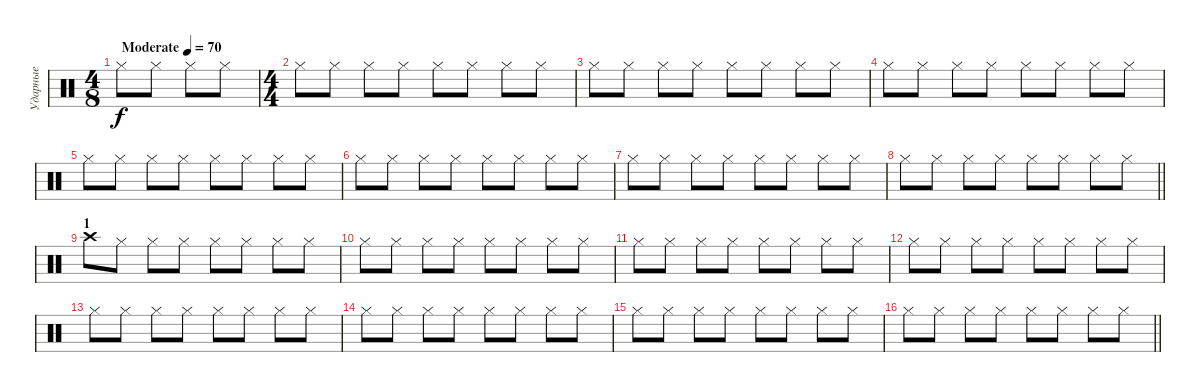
\track ("Ударные" "Ударные") {instrument percussion}
\staff {score}
\articulation defaults
\ts (4 8)
\tempo (70 "Moderate")
\clef neutral
\ks c "Hi-Hat (closed)".8{dy f} "Hi-Hat (closed)".8 "Hi-Hat (closed)".8 "Hi-Hat (closed)".8
|
\ts (4 4)
"Hi-Hat (closed)".8 "Hi-Hat (closed)".8 "Hi-Hat (closed)".8 "Hi-Hat (closed)".8 "Hi-Hat (closed)".8 "Hi-Hat (closed)".8 "Hi-Hat (closed)".8 "Hi-Hat (closed)".8 |
"Hi-Hat (closed)".8 "Hi-Hat (closed)".8 "Hi-Hat (closed)".8 "Hi-Hat (closed)".8 "Hi-Hat (closed)".8 "Hi-Hat (closed)".8 "Hi-Hat (closed)".8 "Hi-Hat (closed)".8 |
"Hi-Hat (closed)".8 "Hi-Hat (closed)".8 "Hi-Hat (closed)".8 "Hi-Hat (closed)".8 "Hi-Hat (closed)".8 "Hi-Hat (closed)".8 "Hi-Hat (closed)".8 "Hi-Hat (closed)".8 |
"Hi-Hat (closed)".8 "Hi-Hat (closed)".8 "Hi-Hat (closed)".8 "Hi-Hat (closed)".8 "Hi-Hat (closed)".8 "Hi-Hat (closed)".8 "Hi-Hat (closed)".8 "Hi-Hat (closed)".8 |
"Hi-Hat (closed)".8 "Hi-Hat (closed)".8 "Hi-Hat (closed)".8 "Hi-Hat (closed)".8 "Hi-Hat (closed)".8 "Hi-Hat (closed)".8 "Hi-Hat (closed)".8 "Hi-Hat (closed)".8 |
"Hi-Hat (closed)".8 "Hi-Hat (closed)".8 "Hi-Hat (closed)".8 "Hi-Hat (closed)".8 "Hi-Hat (closed)".8 "Hi-Hat (closed)".8 "Hi-Hat (closed)".8 "Hi-Hat (closed)".8 |
\barLineRight lightlight "Hi-Hat (closed)".8 "Hi-Hat (closed)".8 "Hi-Hat (closed)".8 "Hi-Hat (closed)".8 "Hi-Hat (closed)".8 "Hi-Hat (closed)".8 "Hi-Hat (closed)".8 "Hi-Hat (closed)".8
|
\section ("" "1")
"Crash high (hit)".8 "Hi-Hat (closed)".8 "Hi-Hat (closed)".8 "Hi-Hat (closed)".8 "Hi-Hat (closed)".8 "Hi-Hat (closed)".8 "Hi-Hat (closed)".8 "Hi-Hat (closed)".8 |
"Hi-Hat (closed)".8 "Hi-Hat (closed)".8 "Hi-Hat (closed)".8 "Hi-Hat (closed)".8 "Hi-Hat (closed)".8 "Hi-Hat (closed)".8 "Hi-Hat (closed)".8 "Hi-Hat (closed)".8 |
"Hi-Hat (closed)".8 "Hi-Hat (closed)".8 "Hi-Hat (closed)".8 "Hi-Hat (closed)".8 "Hi-Hat (closed)".8 "Hi-Hat (closed)".8 "Hi-Hat (closed)".8 "Hi-Hat (closed)".8 |
"Hi-Hat (closed)".8 "Hi-Hat (closed)".8 "Hi-Hat (closed)".8 "Hi-Hat (closed)".8 "Hi-Hat (closed)".8 "Hi-Hat (closed)".8 "Hi-Hat (closed)".8 "Hi-Hat (closed)".8 |
"Hi-Hat (closed)".8 "Hi-Hat (closed)".8 "Hi-Hat (closed)".8 "Hi-Hat (closed)".8 "Hi-Hat (closed)".8 "Hi-Hat (closed)".8 "Hi-Hat (closed)".8 "Hi-Hat (closed)".8 |
"Hi-Hat (closed)".8 "Hi-Hat (closed)".8 "Hi-Hat (closed)".8 "Hi-Hat (closed)".8 "Hi-Hat (closed)".8 "Hi-Hat (closed)".8 "Hi-Hat (closed)".8 "Hi-Hat (closed)".8 |
"Hi-Hat (closed)".8 "Hi-Hat (closed)".8 "Hi-Hat (closed)".8 "Hi-Hat (closed)".8 "Hi-Hat (closed)".8 "Hi-Hat (closed)".8 "Hi-Hat (closed)".8 "Hi-Hat (closed)".8 |
\barLineRight lightlight "Hi-Hat (closed)".8 "Hi-Hat (closed)".8 "Hi-Hat (closed)".8 "Hi-Hat (closed)".8 "Hi-Hat (closed)".8 "Hi-Hat (closed)".8 "Hi-Hat (closed)".8 "Hi-Hat (closed)".8
